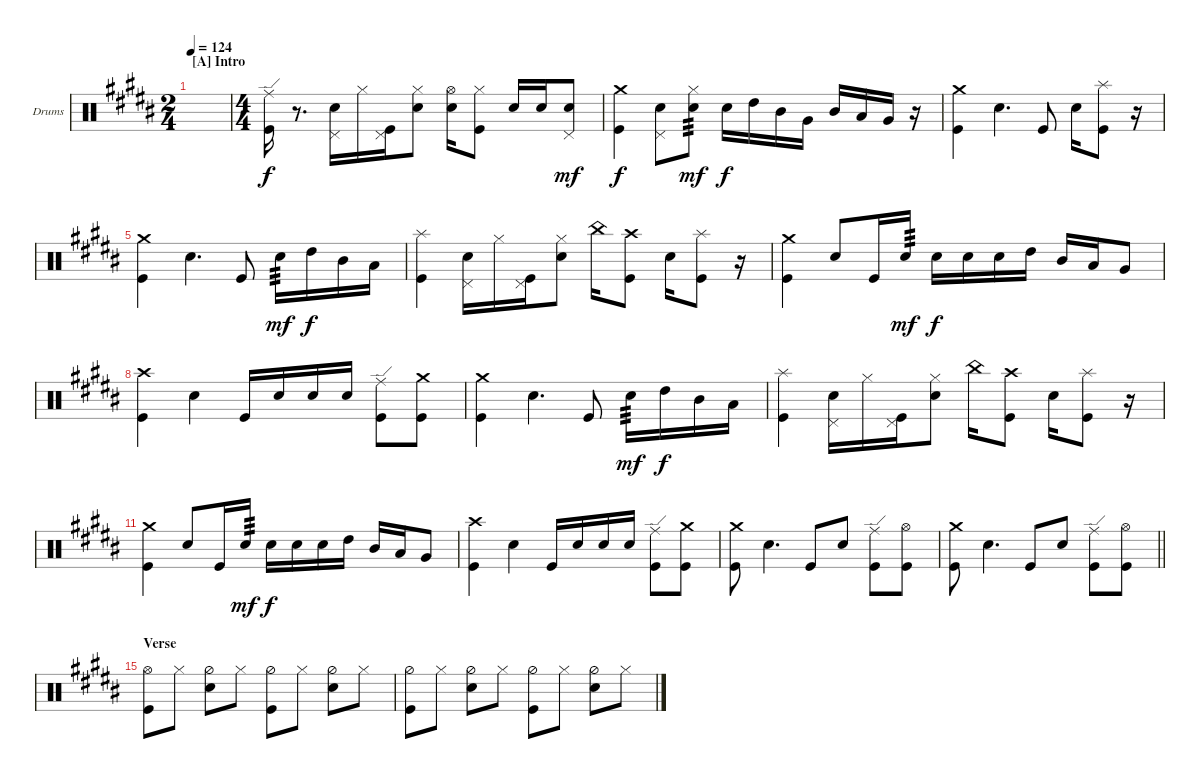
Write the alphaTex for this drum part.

\bracketExtendMode nobrackets
\firstSystemTrackNameOrientation horizontal
\otherSystemsTrackNameOrientation horizontal
\defaultBarNumberDisplay FirstOfSystem
\track ("Drumkit" "Drums") {instrument percussion}
\staff {score}
\articulation defaults
\ts (2 4)
\section ("A" "Intro")
\scale
0.283258
\tempo 124
\accidentals auto
\clef neutral
\ottava regular
\simile none
\ks b
|
\ts (4 4)
\scale
0.238914
\ks g#minor
("Kick (hit)" "Ride (edge)").16 r.8{d} ("Snare (hit) 2" "Pedal Hi-Hat (hit)").16 "Hi-Hat (closed)".16 ("Kick (hit)" "Pedal Hi-Hat (hit)").16 ("Snare (hit) 2" "Hi-Hat (closed)").8 ("Snare (hit) 2" "Hi-Hat (open)").16 ("Kick (hit)" "Hi-Hat (closed)").8 "Snare (hit) 2".16 "Snare (hit) 2".16 ("Snare (hit) 2" "Pedal Hi-Hat (hit)").8{dy mf} |
\scale
0.238914 ("Crash medium (hit)" "Kick (hit)").4{dy f} ("Snare (hit) 2" "Pedal Hi-Hat (hit)").8 ("Snare (hit) 2" "Hi-Hat (closed)").8{tp 3 dy mf} "Snare (hit) 2".16{dy f} "High Tom (hit)".16 "Mid Tom (hit)".16 "Very Low Tom (hit)".16 "Mid Tom (hit)".16 "Low Tom (hit)".16 "Very Low Tom (hit)".16 r.16 |
\scale
0.238914 ("Crash medium (hit)" "Kick (hit)").4 "Snare (hit) 2".4{d} "Kick (hit)".8 "Snare (hit) 2".16 ("Kick (hit)" "Splash (hit)").8 r.16 |
\scale
0.275
\ks b
("Kick (hit)" "Crash medium (hit)").4 "Snare (hit) 2".4{d} "Kick (hit)".8 "Snare (hit) 2".16{tp 3 dy mf} "High Tom (hit)".16{dy f} "Mid Tom (hit)".16 "Low Tom (hit)".16 |
\scale
0.275
\ks g#minor
("Kick (hit)" "Splash (hit)").4 ("Snare (hit) 2" "Pedal Hi-Hat (hit)").16 "Hi-Hat (closed)".16 ("Kick (hit)" "Pedal Hi-Hat (hit)").16 ("Snare (hit) 2" "Hi-Hat (closed)").8 "China (hit)".16 ("Kick (hit)" "Crash high (hit)").8 "Snare (hit) 2".16 ("Kick (hit)" "Splash (hit)").8 r.16 |
\scale
0.175 ("Kick (hit)" "Crash medium (hit)").4 "Snare (hit) 2".8 "Kick (hit)".16 "Snare (hit) 2".16{tp 3 dy mf} "Snare (hit) 2".16{dy f} "Snare (hit) 2".16 "Snare (hit) 2".16 "High Tom (hit)".16 "Mid Tom (hit)".16 "Low Tom (hit)".16 "Very Low Tom (hit)".8 |
\scale
0.275 ("Kick (hit)" "Crash high (hit)").4 "Snare (hit) 2".4 "Kick (hit)".16 "Snare (hit) 2".16 "Snare (hit) 2".16 "Snare (hit) 2".16 ("Kick (hit)" "Ride (edge)").8 ("Kick (hit)" "Crash medium (hit)").8 |
\scale
0.25
\ks b
("Kick (hit)" "Crash medium (hit)").4 "Snare (hit) 2".4{d} "Kick (hit)".8 "Snare (hit) 2".16{tp 3 dy mf} "High Tom (hit)".16{dy f} "Mid Tom (hit)".16 "Low Tom (hit)".16 |
\scale
0.25
\ks g#minor
("Kick (hit)" "Splash (hit)").4 ("Snare (hit) 2" "Pedal Hi-Hat (hit)").16 "Hi-Hat (closed)".16 ("Kick (hit)" "Pedal Hi-Hat (hit)").16 ("Snare (hit) 2" "Hi-Hat (closed)").8 "China (hit)".16 ("Kick (hit)" "Crash high (hit)").8 "Snare (hit) 2".16 ("Kick (hit)" "Splash (hit)").8 r.16 |
\scale
0.25 ("Kick (hit)" "Crash medium (hit)").4 "Snare (hit) 2".8 "Kick (hit)".16 "Snare (hit) 2".16{tp 3 dy mf} "Snare (hit) 2".16{dy f} "Snare (hit) 2".16 "Snare (hit) 2".16 "High Tom (hit)".16 "Mid Tom (hit)".16 "Low Tom (hit)".16 "Very Low Tom (hit)".8 |
\scale
0.25
\ks b
("Kick (hit)" "Crash high (hit)").4 "Snare (hit) 2".4 "Kick (hit)".16 "Snare (hit) 2".16 "Snare (hit) 2".16 "Snare (hit) 2".16 ("Kick (hit)" "Ride (edge)").8 ("Kick (hit)" "Crash medium (hit)").8 |
\ks g#minor
("Kick (hit)" "Crash medium (hit)").8 "Snare (hit) 2".4{d} "Kick (hit)".8 "Snare (hit) 2".8 ("Kick (hit)" "Ride (edge)").8 ("Kick (hit)" "Hi-Hat (open)").8 |
\barLineRight lightlight
("Kick (hit)" "Crash medium (hit)").8 "Snare (hit) 2".4{d} "Kick (hit)".8 "Snare (hit) 2".8 ("Kick (hit)" "Ride (edge)").8 ("Kick (hit)" "Hi-Hat (open)").8 |
\section ("" "Verse")
\ks b
("Kick (hit)" "Hi-Hat (open)").8 "Hi-Hat (closed)".8 ("Hi-Hat (half)" "Snare (hit) 2").8 "Hi-Hat (closed)".8 ("Hi-Hat (half)" "Kick (hit)").8 "Hi-Hat (closed)".8 ("Hi-Hat (half)" "Snare (hit) 2").8 "Hi-Hat (closed)".8 |
\ks g#minor
("Kick (hit)" "Hi-Hat (half)").8 "Hi-Hat (closed)".8 ("Hi-Hat (half)" "Snare (hit) 2").8 "Hi-Hat (closed)".8 ("Hi-Hat (half)" "Kick (hit)").8 "Hi-Hat (closed)".8 ("Hi-Hat (half)" "Snare (hit) 2").8 "Hi-Hat (closed)".8
